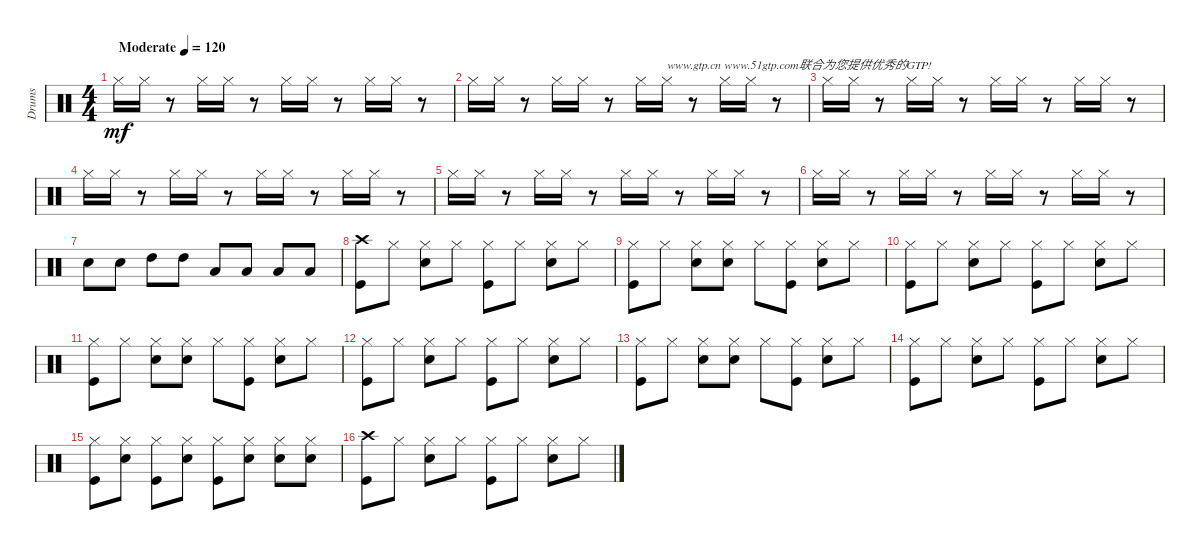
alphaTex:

\track ("Drums" "Drums") {instrument percussion}
\staff {score}
\articulation defaults
\ts (4 4)
\tempo (120 "Moderate")
\clef neutral
\ks c "Hi-Hat (closed)".16{dy mf} "Hi-Hat (closed)".16
r.8 "Hi-Hat (closed)".16 "Hi-Hat (closed)".16 r.8 "Hi-Hat (closed)".16 "Hi-Hat (closed)".16 r.8 "Hi-Hat (closed)".16 "Hi-Hat (closed)".16 r.8 |
"Hi-Hat (closed)".16 "Hi-Hat (closed)".16 r.8 "Hi-Hat (closed)".16 "Hi-Hat (closed)".16 r.8 "Hi-Hat (closed)".16 "Hi-Hat (closed)".16{txt "www.gtp.cn www.51gtp.com联合为您提供优秀的GTP!"} r.8 "Hi-Hat (closed)".16 "Hi-Hat (closed)".16 r.8 |
"Hi-Hat (closed)".16 "Hi-Hat (closed)".16 r.8 "Hi-Hat (closed)".16 "Hi-Hat (closed)".16 r.8 "Hi-Hat (closed)".16 "Hi-Hat (closed)".16 r.8 "Hi-Hat (closed)".16 "Hi-Hat (closed)".16 r.8 |
"Hi-Hat (closed)".16 "Hi-Hat (closed)".16 r.8 "Hi-Hat (closed)".16 "Hi-Hat (closed)".16 r.8 "Hi-Hat (closed)".16 "Hi-Hat (closed)".16 r.8 "Hi-Hat (closed)".16 "Hi-Hat (closed)".16 r.8 |
"Hi-Hat (closed)".16 "Hi-Hat (closed)".16 r.8 "Hi-Hat (closed)".16 "Hi-Hat (closed)".16 r.8 "Hi-Hat (closed)".16 "Hi-Hat (closed)".16 r.8 "Hi-Hat (closed)".16 "Hi-Hat (closed)".16 r.8 |
"Hi-Hat (closed)".16 "Hi-Hat (closed)".16 r.8 "Hi-Hat (closed)".16 "Hi-Hat (closed)".16 r.8 "Hi-Hat (closed)".16 "Hi-Hat (closed)".16 r.8 "Hi-Hat (closed)".16 "Hi-Hat (closed)".16 r.8 |
"Snare (hit) 2".8 "Snare (hit) 2".8 "High Tom (hit)".8 "High Tom (hit)".8 "Low Tom (hit)".8 "Low Tom (hit)".8 "Low Floor Tom (hit)".8 "Low Floor Tom (hit)".8 |
("Crash high (hit)" "Kick (hit)").8 "Hi-Hat (closed)".8 ("Snare (hit) 2" "Hi-Hat (closed)").8 "Hi-Hat (closed)".8 ("Hi-Hat (closed)" "Kick (hit)").8 "Hi-Hat (closed)".8 ("Snare (hit) 2" "Hi-Hat (closed)").8 "Hi-Hat (closed)".8 |
("Kick (hit)" "Hi-Hat (closed)").8 "Hi-Hat (closed)".8 ("Snare (hit) 2" "Hi-Hat (closed)").8 ("Snare (hit) 2" "Hi-Hat (closed)").8 "Hi-Hat (closed)".8 ("Kick (hit)" "Hi-Hat (closed)").8 ("Snare (hit) 2" "Hi-Hat (closed)").8 "Hi-Hat (closed)".8 |
("Kick (hit)" "Hi-Hat (closed)").8 "Hi-Hat (closed)".8 ("Snare (hit) 2" "Hi-Hat (closed)").8 "Hi-Hat (closed)".8 ("Kick (hit)" "Hi-Hat (closed)").8 "Hi-Hat (closed)".8 ("Snare (hit) 2" "Hi-Hat (closed)").8 "Hi-Hat (closed)".8 |
("Kick (hit)" "Hi-Hat (closed)").8 "Hi-Hat (closed)".8 ("Snare (hit) 2" "Hi-Hat (closed)").8 ("Snare (hit) 2" "Hi-Hat (closed)").8 "Hi-Hat (closed)".8 ("Kick (hit)" "Hi-Hat (closed)").8 ("Snare (hit) 2" "Hi-Hat (closed)").8 "Hi-Hat (closed)".8 |
("Kick (hit)" "Hi-Hat (closed)").8 "Hi-Hat (closed)".8 ("Snare (hit) 2" "Hi-Hat (closed)").8 "Hi-Hat (closed)".8 ("Kick (hit)" "Hi-Hat (closed)").8 "Hi-Hat (closed)".8 ("Snare (hit) 2" "Hi-Hat (closed)").8 "Hi-Hat (closed)".8 |
("Kick (hit)" "Hi-Hat (closed)").8 "Hi-Hat (closed)".8 ("Snare (hit) 2" "Hi-Hat (closed)").8 ("Snare (hit) 2" "Hi-Hat (closed)").8 "Hi-Hat (closed)".8 ("Kick (hit)" "Hi-Hat (closed)").8 ("Snare (hit) 2" "Hi-Hat (closed)").8 "Hi-Hat (closed)".8 |
("Hi-Hat (closed)" "Kick (hit)").8 "Hi-Hat (closed)".8 ("Snare (hit) 2" "Hi-Hat (closed)").8 "Hi-Hat (closed)".8 ("Hi-Hat (closed)" "Kick (hit)").8 "Hi-Hat (closed)".8 ("Snare (hit) 2" "Hi-Hat (closed)").8 "Hi-Hat (closed)".8 |
("Hi-Hat (closed)" "Kick (hit)").8 ("Snare (hit) 2" "Hi-Hat (closed)").8 ("Hi-Hat (closed)" "Kick (hit)").8 ("Snare (hit) 2" "Hi-Hat (closed)").8 ("Hi-Hat (closed)" "Kick (hit)").8 ("Snare (hit) 2" "Hi-Hat (closed)").8 ("Snare (hit) 2" "Hi-Hat (closed)").8 ("Snare (hit) 2" "Hi-Hat (closed)").8 |
("Crash high (hit)" "Kick (hit)").8 "Hi-Hat (closed)".8 ("Snare (hit) 2" "Hi-Hat (closed)").8 "Hi-Hat (closed)".8 ("Hi-Hat (closed)" "Kick (hit)").8 "Hi-Hat (closed)".8 ("Snare (hit) 2" "Hi-Hat (closed)").8 "Hi-Hat (closed)".8
